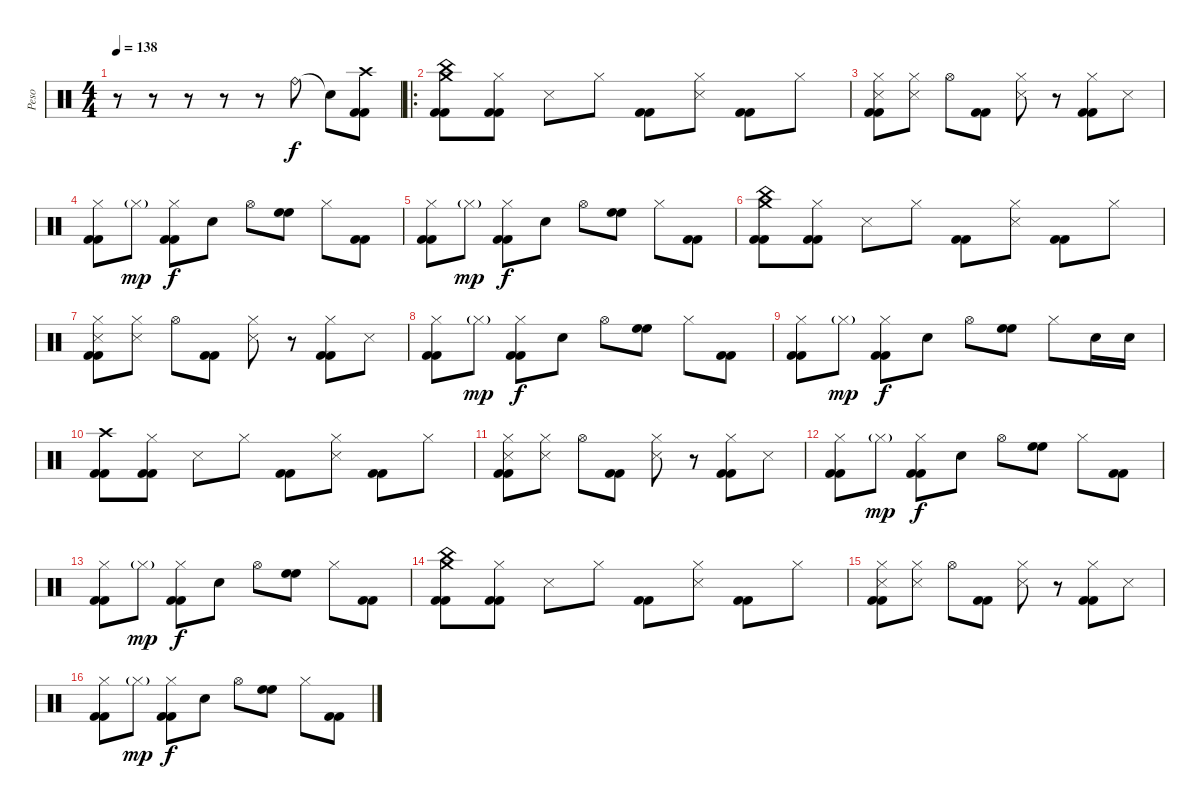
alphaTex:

\track ("Peso" "Peso") {instrument percussion}
\staff {score}
\articulation defaults
\ts (4 4)
\tempo 138
\clef neutral
\ks c
r.8{dy f} r.8 r.8 r.8 r.8 "Ride (bell)".8 "Snare (hit)"{t}.8 ("Crash high (hit)" "Kick (hit) 2" "Kick (hit) 2").8 |
\ro
("China (hit)" "Crash medium (hit)" "Kick (hit) 2" "Kick (hit) 2").8 ("Hi-Hat (closed)" "Kick (hit) 2" "Kick (hit) 2").8 "Snare (side stick) 3".8 "Hi-Hat (closed)".8 ("Kick (hit) 2" "Kick (hit) 2").8 ("Hi-Hat (closed)" "Snare (side stick) 3").8 ("Kick (hit) 2" "Kick (hit) 2").8 "Hi-Hat (closed)".8 |
("Hi-Hat (closed)" "Snare (side stick) 3" "Kick (hit) 2" "Kick (hit) 2").8 ("Hi-Hat (closed)" "Snare (side stick) 3").8 "Hi-Hat (open)".8 ("Kick (hit) 2" "Kick (hit) 2").8 ("Hi-Hat (closed)" "Snare (side stick) 3").8 r.8 ("Hi-Hat (closed)" "Kick (hit) 2" "Kick (hit) 2").8 "Snare (side stick) 3".8 |
("Hi-Hat (closed)" "Kick (hit) 2" "Kick (hit) 2").8 "Hi-Hat (closed)"{g}.8{dy mp} ("Hi-Hat (closed)" "Kick (hit) 2" "Kick (hit) 2").8{dy f} "Electric Snare (hit)".8 "Hi-Hat (open)".8 ("High Floor Tom (hit)" "High Floor Tom (hit)").8{volume 16} "Hi-Hat (closed)".8{volume 15} ("Kick (hit) 2" "Kick (hit) 2").8 |
("Hi-Hat (closed)" "Kick (hit) 2" "Kick (hit) 2").8 "Hi-Hat (closed)"{g}.8{dy mp} ("Hi-Hat (closed)" "Kick (hit) 2" "Kick (hit) 2").8{dy f} "Electric Snare (hit)".8 "Hi-Hat (open)".8 ("High Floor Tom (hit)" "High Floor Tom (hit)").8{volume 16} "Hi-Hat (closed)".8{volume 15} ("Kick (hit) 2" "Kick (hit) 2").8 |
("China (hit)" "Crash medium (hit)" "Kick (hit) 2" "Kick (hit) 2").8 ("Hi-Hat (closed)" "Kick (hit) 2" "Kick (hit) 2").8 "Snare (side stick) 3".8 "Hi-Hat (closed)".8 ("Kick (hit) 2" "Kick (hit) 2").8 ("Hi-Hat (closed)" "Snare (side stick) 3").8 ("Kick (hit) 2" "Kick (hit) 2").8 "Hi-Hat (closed)".8 |
("Hi-Hat (closed)" "Snare (side stick) 3" "Kick (hit) 2" "Kick (hit) 2").8 ("Hi-Hat (closed)" "Snare (side stick) 3").8 "Hi-Hat (open)".8 ("Kick (hit) 2" "Kick (hit) 2").8 ("Hi-Hat (closed)" "Snare (side stick) 3").8 r.8 ("Hi-Hat (closed)" "Kick (hit) 2" "Kick (hit) 2").8 "Snare (side stick) 3".8 |
("Hi-Hat (closed)" "Kick (hit) 2" "Kick (hit) 2").8 "Hi-Hat (closed)"{g}.8{dy mp} ("Hi-Hat (closed)" "Kick (hit) 2" "Kick (hit) 2").8{dy f} "Electric Snare (hit)".8 "Hi-Hat (open)".8 ("High Floor Tom (hit)" "High Floor Tom (hit)").8{volume 16} "Hi-Hat (closed)".8{volume 15} ("Kick (hit) 2" "Kick (hit) 2").8 |
("Hi-Hat (closed)" "Kick (hit) 2" "Kick (hit) 2").8 "Hi-Hat (closed)"{g}.8{dy mp} ("Hi-Hat (closed)" "Kick (hit) 2" "Kick (hit) 2").8{dy f} "Electric Snare (hit)".8 "Hi-Hat (open)".8 ("High Floor Tom (hit)" "High Floor Tom (hit)").8{volume 16} "Hi-Hat (closed)".8{volume 15} "Electric Snare (hit)".16 "Electric Snare (hit)".16 |
("Crash high (hit)" "Kick (hit) 2" "Kick (hit) 2").8 ("Hi-Hat (closed)" "Kick (hit) 2" "Kick (hit) 2").8 "Snare (side stick) 3".8 "Hi-Hat (closed)".8 ("Kick (hit) 2" "Kick (hit) 2").8 ("Hi-Hat (closed)" "Snare (side stick) 3").8 ("Kick (hit) 2" "Kick (hit) 2").8 "Hi-Hat (closed)".8 |
("Hi-Hat (closed)" "Snare (side stick) 3" "Kick (hit) 2" "Kick (hit) 2").8 ("Hi-Hat (closed)" "Snare (side stick) 3").8 "Hi-Hat (open)".8 ("Kick (hit) 2" "Kick (hit) 2").8 ("Hi-Hat (closed)" "Snare (side stick) 3").8 r.8 ("Hi-Hat (closed)" "Kick (hit) 2" "Kick (hit) 2").8 "Snare (side stick) 3".8 |
("Hi-Hat (closed)" "Kick (hit) 2" "Kick (hit) 2").8 "Hi-Hat (closed)"{g}.8{dy mp} ("Hi-Hat (closed)" "Kick (hit) 2" "Kick (hit) 2").8{dy f} "Electric Snare (hit)".8 "Hi-Hat (open)".8 ("High Floor Tom (hit)" "High Floor Tom (hit)").8{volume 16} "Hi-Hat (closed)".8{volume 15} ("Kick (hit) 2" "Kick (hit) 2").8 |
("Hi-Hat (closed)" "Kick (hit) 2" "Kick (hit) 2").8 "Hi-Hat (closed)"{g}.8{dy mp} ("Hi-Hat (closed)" "Kick (hit) 2" "Kick (hit) 2").8{dy f} "Electric Snare (hit)".8 "Hi-Hat (open)".8 ("High Floor Tom (hit)" "High Floor Tom (hit)").8{volume 16} "Hi-Hat (closed)".8{volume 15} ("Kick (hit) 2" "Kick (hit) 2").8 |
("China (hit)" "Crash medium (hit)" "Kick (hit) 2" "Kick (hit) 2").8 ("Hi-Hat (closed)" "Kick (hit) 2" "Kick (hit) 2").8 "Snare (side stick) 3".8 "Hi-Hat (closed)".8 ("Kick (hit) 2" "Kick (hit) 2").8 ("Hi-Hat (closed)" "Snare (side stick) 3").8 ("Kick (hit) 2" "Kick (hit) 2").8 "Hi-Hat (closed)".8 |
("Hi-Hat (closed)" "Snare (side stick) 3" "Kick (hit) 2" "Kick (hit) 2").8 ("Hi-Hat (closed)" "Snare (side stick) 3").8 "Hi-Hat (open)".8 ("Kick (hit) 2" "Kick (hit) 2").8 ("Hi-Hat (closed)" "Snare (side stick) 3").8 r.8 ("Hi-Hat (closed)" "Kick (hit) 2" "Kick (hit) 2").8 "Snare (side stick) 3".8 |
("Hi-Hat (closed)" "Kick (hit) 2" "Kick (hit) 2").8 "Hi-Hat (closed)"{g}.8{dy mp} ("Hi-Hat (closed)" "Kick (hit) 2" "Kick (hit) 2").8{dy f} "Electric Snare (hit)".8 "Hi-Hat (open)".8 ("High Floor Tom (hit)" "High Floor Tom (hit)").8 "Hi-Hat (closed)".8 ("Kick (hit) 2" "Kick (hit) 2").8
